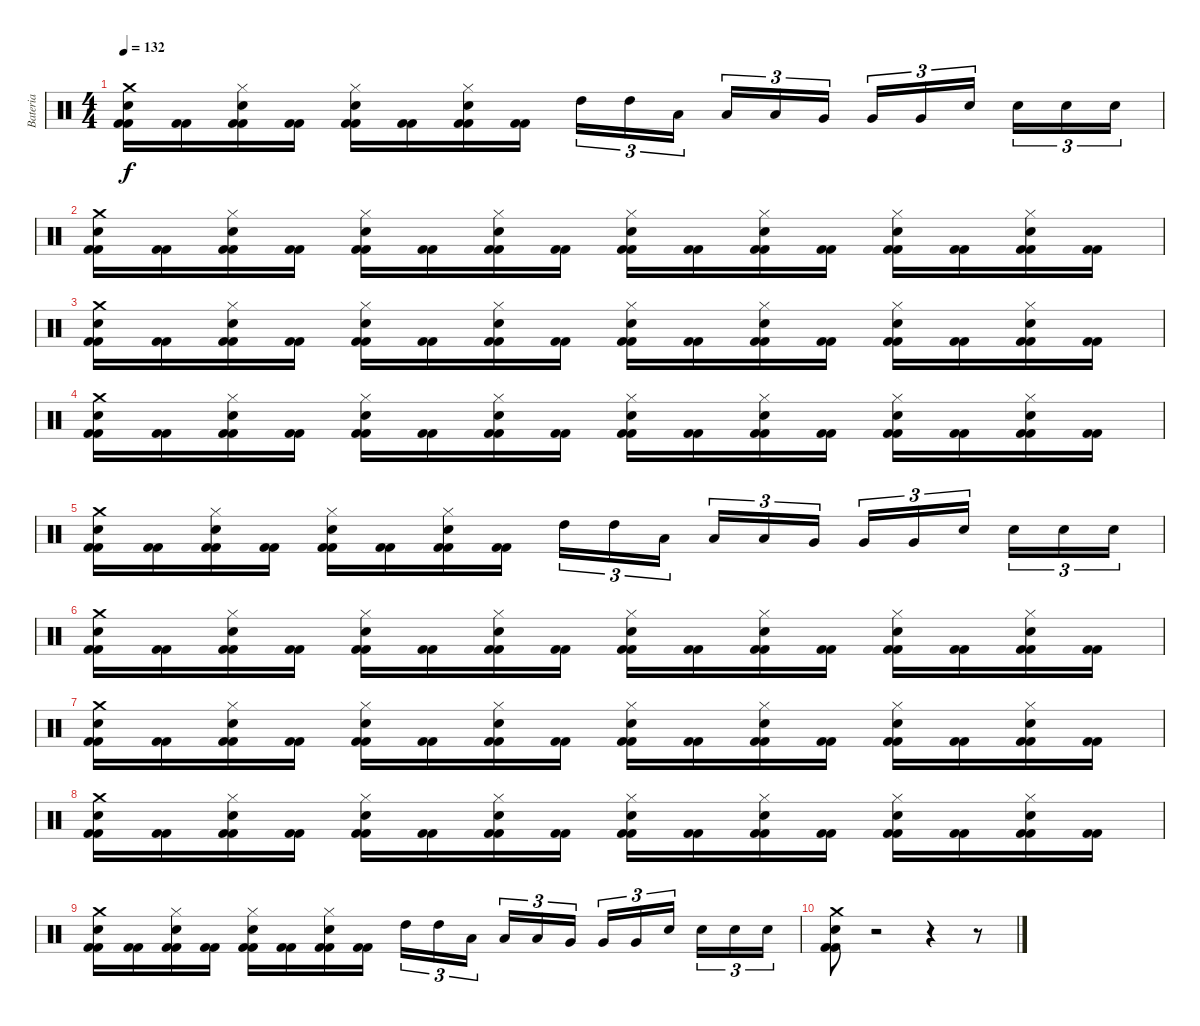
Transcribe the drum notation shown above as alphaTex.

\track ("Bateria" "Bateria") {instrument percussion}
\staff {score}
\articulation defaults
\ts (4 4)
\tempo 132
\clef neutral
\ks c
("Kick (hit) 2" "Kick (hit) 2" "Snare (hit) 2" "Crash medium (hit)").16{dy f} ("Kick (hit) 2" "Kick (hit) 2").16 ("Kick (hit) 2" "Kick (hit) 2" "Snare (hit) 2" "Hi-Hat (closed)").16 ("Kick (hit) 2" "Kick (hit) 2").16 ("Kick (hit) 2" "Kick (hit) 2" "Snare (hit) 2" "Hi-Hat (closed)").16 ("Kick (hit) 2" "Kick (hit) 2").16 ("Kick (hit) 2" "Kick (hit) 2" "Snare (hit) 2" "Hi-Hat (closed)").16 ("Kick (hit) 2" "Kick (hit) 2").16 "High Tom (hit)".16{tu (3 2)} "High Tom (hit)".16{tu (3 2)} "Low Tom (hit)".16{tu (3 2)} "Low Tom (hit)".16{tu (3 2)} "Low Tom (hit)".16{tu (3 2)} "Very Low Tom (hit)".16{tu (3 2)} "Very Low Tom (hit)".16{tu (3 2)} "Very Low Tom (hit)".16{tu (3 2)} "Snare (hit) 2".16{tu (3 2)} "Snare (hit) 2".16{tu (3 2)} "Snare (hit) 2".16{tu (3 2)} "Snare (hit) 2".16{tu (3 2)} |
("Kick (hit) 2" "Kick (hit) 2" "Snare (hit) 2" "Crash medium (hit)").16 ("Kick (hit) 2" "Kick (hit) 2").16 ("Kick (hit) 2" "Kick (hit) 2" "Snare (hit) 2" "Hi-Hat (closed)").16 ("Kick (hit) 2" "Kick (hit) 2").16 ("Kick (hit) 2" "Kick (hit) 2" "Snare (hit) 2" "Hi-Hat (closed)").16 ("Kick (hit) 2" "Kick (hit) 2").16 ("Kick (hit) 2" "Kick (hit) 2" "Snare (hit) 2" "Hi-Hat (closed)").16 ("Kick (hit) 2" "Kick (hit) 2").16 ("Kick (hit) 2" "Kick (hit) 2" "Snare (hit) 2" "Hi-Hat (closed)").16 ("Kick (hit) 2" "Kick (hit) 2").16 ("Kick (hit) 2" "Kick (hit) 2" "Snare (hit) 2" "Hi-Hat (closed)").16 ("Kick (hit) 2" "Kick (hit) 2").16 ("Kick (hit) 2" "Kick (hit) 2" "Snare (hit) 2" "Hi-Hat (closed)").16 ("Kick (hit) 2" "Kick (hit) 2").16 ("Kick (hit) 2" "Kick (hit) 2" "Snare (hit) 2" "Hi-Hat (closed)").16 ("Kick (hit) 2" "Kick (hit) 2").16 |
("Kick (hit) 2" "Kick (hit) 2" "Snare (hit) 2" "Crash medium (hit)").16 ("Kick (hit) 2" "Kick (hit) 2").16 ("Kick (hit) 2" "Kick (hit) 2" "Snare (hit) 2" "Hi-Hat (closed)").16 ("Kick (hit) 2" "Kick (hit) 2").16 ("Kick (hit) 2" "Kick (hit) 2" "Snare (hit) 2" "Hi-Hat (closed)").16 ("Kick (hit) 2" "Kick (hit) 2").16 ("Kick (hit) 2" "Kick (hit) 2" "Snare (hit) 2" "Hi-Hat (closed)").16 ("Kick (hit) 2" "Kick (hit) 2").16 ("Kick (hit) 2" "Kick (hit) 2" "Snare (hit) 2" "Hi-Hat (closed)").16 ("Kick (hit) 2" "Kick (hit) 2").16 ("Kick (hit) 2" "Kick (hit) 2" "Snare (hit) 2" "Hi-Hat (closed)").16 ("Kick (hit) 2" "Kick (hit) 2").16 ("Kick (hit) 2" "Kick (hit) 2" "Snare (hit) 2" "Hi-Hat (closed)").16 ("Kick (hit) 2" "Kick (hit) 2").16 ("Kick (hit) 2" "Kick (hit) 2" "Snare (hit) 2" "Hi-Hat (closed)").16 ("Kick (hit) 2" "Kick (hit) 2").16 |
("Kick (hit) 2" "Kick (hit) 2" "Snare (hit) 2" "Crash medium (hit)").16 ("Kick (hit) 2" "Kick (hit) 2").16 ("Kick (hit) 2" "Kick (hit) 2" "Snare (hit) 2" "Hi-Hat (closed)").16 ("Kick (hit) 2" "Kick (hit) 2").16 ("Kick (hit) 2" "Kick (hit) 2" "Snare (hit) 2" "Hi-Hat (closed)").16 ("Kick (hit) 2" "Kick (hit) 2").16 ("Kick (hit) 2" "Kick (hit) 2" "Snare (hit) 2" "Hi-Hat (closed)").16 ("Kick (hit) 2" "Kick (hit) 2").16 ("Kick (hit) 2" "Kick (hit) 2" "Snare (hit) 2" "Hi-Hat (closed)").16 ("Kick (hit) 2" "Kick (hit) 2").16 ("Kick (hit) 2" "Kick (hit) 2" "Snare (hit) 2" "Hi-Hat (closed)").16 ("Kick (hit) 2" "Kick (hit) 2").16 ("Kick (hit) 2" "Kick (hit) 2" "Snare (hit) 2" "Hi-Hat (closed)").16 ("Kick (hit) 2" "Kick (hit) 2").16 ("Kick (hit) 2" "Kick (hit) 2" "Snare (hit) 2" "Hi-Hat (closed)").16 ("Kick (hit) 2" "Kick (hit) 2").16 |
("Kick (hit) 2" "Kick (hit) 2" "Snare (hit) 2" "Crash medium (hit)").16 ("Kick (hit) 2" "Kick (hit) 2").16 ("Kick (hit) 2" "Kick (hit) 2" "Snare (hit) 2" "Hi-Hat (closed)").16 ("Kick (hit) 2" "Kick (hit) 2").16 ("Kick (hit) 2" "Kick (hit) 2" "Snare (hit) 2" "Hi-Hat (closed)").16 ("Kick (hit) 2" "Kick (hit) 2").16 ("Kick (hit) 2" "Kick (hit) 2" "Snare (hit) 2" "Hi-Hat (closed)").16 ("Kick (hit) 2" "Kick (hit) 2").16 "High Tom (hit)".16{tu (3 2)} "High Tom (hit)".16{tu (3 2)} "Low Tom (hit)".16{tu (3 2)} "Low Tom (hit)".16{tu (3 2)} "Low Tom (hit)".16{tu (3 2)} "Very Low Tom (hit)".16{tu (3 2)} "Very Low Tom (hit)".16{tu (3 2)} "Very Low Tom (hit)".16{tu (3 2)} "Snare (hit) 2".16{tu (3 2)} "Snare (hit) 2".16{tu (3 2)} "Snare (hit) 2".16{tu (3 2)} "Snare (hit) 2".16{tu (3 2)} |
("Kick (hit) 2" "Kick (hit) 2" "Snare (hit) 2" "Crash medium (hit)").16 ("Kick (hit) 2" "Kick (hit) 2").16 ("Kick (hit) 2" "Kick (hit) 2" "Snare (hit) 2" "Hi-Hat (closed)").16 ("Kick (hit) 2" "Kick (hit) 2").16 ("Kick (hit) 2" "Kick (hit) 2" "Snare (hit) 2" "Hi-Hat (closed)").16 ("Kick (hit) 2" "Kick (hit) 2").16 ("Kick (hit) 2" "Kick (hit) 2" "Snare (hit) 2" "Hi-Hat (closed)").16 ("Kick (hit) 2" "Kick (hit) 2").16 ("Kick (hit) 2" "Kick (hit) 2" "Snare (hit) 2" "Hi-Hat (closed)").16 ("Kick (hit) 2" "Kick (hit) 2").16 ("Kick (hit) 2" "Kick (hit) 2" "Snare (hit) 2" "Hi-Hat (closed)").16 ("Kick (hit) 2" "Kick (hit) 2").16 ("Kick (hit) 2" "Kick (hit) 2" "Snare (hit) 2" "Hi-Hat (closed)").16 ("Kick (hit) 2" "Kick (hit) 2").16 ("Kick (hit) 2" "Kick (hit) 2" "Snare (hit) 2" "Hi-Hat (closed)").16 ("Kick (hit) 2" "Kick (hit) 2").16 |
("Kick (hit) 2" "Kick (hit) 2" "Snare (hit) 2" "Crash medium (hit)").16 ("Kick (hit) 2" "Kick (hit) 2").16 ("Kick (hit) 2" "Kick (hit) 2" "Snare (hit) 2" "Hi-Hat (closed)").16 ("Kick (hit) 2" "Kick (hit) 2").16 ("Kick (hit) 2" "Kick (hit) 2" "Snare (hit) 2" "Hi-Hat (closed)").16 ("Kick (hit) 2" "Kick (hit) 2").16 ("Kick (hit) 2" "Kick (hit) 2" "Snare (hit) 2" "Hi-Hat (closed)").16 ("Kick (hit) 2" "Kick (hit) 2").16 ("Kick (hit) 2" "Kick (hit) 2" "Snare (hit) 2" "Hi-Hat (closed)").16 ("Kick (hit) 2" "Kick (hit) 2").16 ("Kick (hit) 2" "Kick (hit) 2" "Snare (hit) 2" "Hi-Hat (closed)").16 ("Kick (hit) 2" "Kick (hit) 2").16 ("Kick (hit) 2" "Kick (hit) 2" "Snare (hit) 2" "Hi-Hat (closed)").16 ("Kick (hit) 2" "Kick (hit) 2").16 ("Kick (hit) 2" "Kick (hit) 2" "Snare (hit) 2" "Hi-Hat (closed)").16 ("Kick (hit) 2" "Kick (hit) 2").16 |
("Kick (hit) 2" "Kick (hit) 2" "Snare (hit) 2" "Crash medium (hit)").16 ("Kick (hit) 2" "Kick (hit) 2").16 ("Kick (hit) 2" "Kick (hit) 2" "Snare (hit) 2" "Hi-Hat (closed)").16 ("Kick (hit) 2" "Kick (hit) 2").16 ("Kick (hit) 2" "Kick (hit) 2" "Snare (hit) 2" "Hi-Hat (closed)").16 ("Kick (hit) 2" "Kick (hit) 2").16 ("Kick (hit) 2" "Kick (hit) 2" "Snare (hit) 2" "Hi-Hat (closed)").16 ("Kick (hit) 2" "Kick (hit) 2").16 ("Kick (hit) 2" "Kick (hit) 2" "Snare (hit) 2" "Hi-Hat (closed)").16 ("Kick (hit) 2" "Kick (hit) 2").16 ("Kick (hit) 2" "Kick (hit) 2" "Snare (hit) 2" "Hi-Hat (closed)").16 ("Kick (hit) 2" "Kick (hit) 2").16 ("Kick (hit) 2" "Kick (hit) 2" "Snare (hit) 2" "Hi-Hat (closed)").16 ("Kick (hit) 2" "Kick (hit) 2").16 ("Kick (hit) 2" "Kick (hit) 2" "Snare (hit) 2" "Hi-Hat (closed)").16 ("Kick (hit) 2" "Kick (hit) 2").16 |
("Kick (hit) 2" "Kick (hit) 2" "Snare (hit) 2" "Crash medium (hit)").16 ("Kick (hit) 2" "Kick (hit) 2").16 ("Kick (hit) 2" "Kick (hit) 2" "Snare (hit) 2" "Hi-Hat (closed)").16 ("Kick (hit) 2" "Kick (hit) 2").16 ("Kick (hit) 2" "Kick (hit) 2" "Snare (hit) 2" "Hi-Hat (closed)").16 ("Kick (hit) 2" "Kick (hit) 2").16 ("Kick (hit) 2" "Kick (hit) 2" "Snare (hit) 2" "Hi-Hat (closed)").16 ("Kick (hit) 2" "Kick (hit) 2").16 "High Tom (hit)".16{tu (3 2)} "High Tom (hit)".16{tu (3 2)} "Low Tom (hit)".16{tu (3 2)} "Low Tom (hit)".16{tu (3 2)} "Low Tom (hit)".16{tu (3 2)} "Very Low Tom (hit)".16{tu (3 2)} "Very Low Tom (hit)".16{tu (3 2)} "Very Low Tom (hit)".16{tu (3 2)} "Snare (hit) 2".16{tu (3 2)} "Snare (hit) 2".16{tu (3 2)} "Snare (hit) 2".16{tu (3 2)} "Snare (hit) 2".16{tu (3 2)} |
("Kick (hit) 2" "Kick (hit) 2" "Snare (hit) 2" "Crash medium (hit)").8 r.2 r.4 r.8
